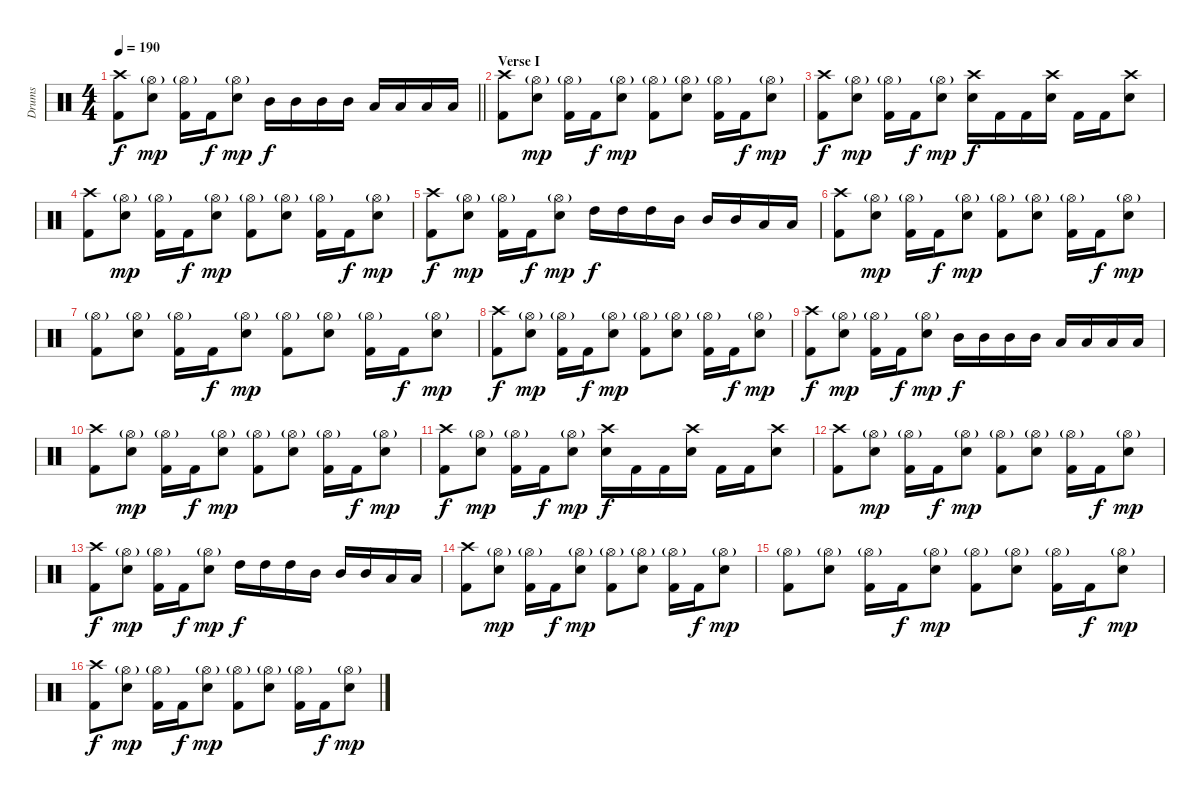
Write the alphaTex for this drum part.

\track ("Drums" "Drums") {instrument percussion}
\staff {score}
\articulation defaults
\ts (4 4)
\tempo 190
\clef neutral
\barLineRight lightlight
\ks c
("Crash high (hit)" "Kick (hit) 2").8{dy f} ("Hi-Hat (open)"{g} "Electric Snare (hit)").8{dy mp} ("Hi-Hat (open)"{g} "Kick (hit) 2").16 "Kick (hit) 2".16{dy f} ("Hi-Hat (open)"{g} "Electric Snare (hit)").8{dy mp} "Mid Tom (hit)".16{dy f} "Mid Tom (hit)".16 "Mid Tom (hit)".16 "Mid Tom (hit)".16 "Low Tom (hit)".16 "Low Tom (hit)".16 "Low Tom (hit)".16 "Low Tom (hit)".16 |
\section ("" "Verse I")
("Crash high (hit)" "Kick (hit) 2").8 ("Hi-Hat (open)"{g} "Electric Snare (hit)").8{dy mp} ("Hi-Hat (open)"{g} "Kick (hit) 2").16 "Kick (hit) 2".16{dy f} ("Hi-Hat (open)"{g} "Electric Snare (hit)").8{dy mp} ("Hi-Hat (open)"{g} "Kick (hit) 2").8 ("Hi-Hat (open)"{g} "Electric Snare (hit)").8 ("Hi-Hat (open)"{g} "Kick (hit) 2").16 "Kick (hit) 2".16{dy f} ("Hi-Hat (open)"{g} "Electric Snare (hit)").8{dy mp} |
("Crash high (hit)" "Kick (hit) 2").8{dy f} ("Hi-Hat (open)"{g} "Electric Snare (hit)").8{dy mp} ("Hi-Hat (open)"{g} "Kick (hit) 2").16 "Kick (hit) 2".16{dy f} ("Hi-Hat (open)"{g} "Electric Snare (hit)").8{dy mp} ("Crash high (hit)" "Electric Snare (hit)").16{dy f} "Kick (hit) 2".16 "Kick (hit) 2".16 ("Crash high (hit)" "Electric Snare (hit)").16 "Kick (hit) 2".16 "Kick (hit) 2".16 ("Crash high (hit)" "Electric Snare (hit)").8 |
("Crash high (hit)" "Kick (hit) 2").8 ("Hi-Hat (open)"{g} "Electric Snare (hit)").8{dy mp} ("Hi-Hat (open)"{g} "Kick (hit) 2").16 "Kick (hit) 2".16{dy f} ("Hi-Hat (open)"{g} "Electric Snare (hit)").8{dy mp} ("Hi-Hat (open)"{g} "Kick (hit) 2").8 ("Hi-Hat (open)"{g} "Electric Snare (hit)").8 ("Hi-Hat (open)"{g} "Kick (hit) 2").16 "Kick (hit) 2".16{dy f} ("Hi-Hat (open)"{g} "Electric Snare (hit)").8{dy mp} |
("Crash high (hit)" "Kick (hit) 2").8{dy f} ("Hi-Hat (open)"{g} "Electric Snare (hit)").8{dy mp} ("Hi-Hat (open)"{g} "Kick (hit) 2").16 "Kick (hit) 2".16{dy f} ("Hi-Hat (open)"{g} "Electric Snare (hit)").8{dy mp} "High Tom (hit)".16{dy f} "High Tom (hit)".16 "High Tom (hit)".16 "Mid Tom (hit)".16 "Mid Tom (hit)".16 "Mid Tom (hit)".16 "Low Tom (hit)".16 "Low Tom (hit)".16 |
("Crash high (hit)" "Kick (hit) 2").8 ("Hi-Hat (open)"{g} "Electric Snare (hit)").8{dy mp} ("Hi-Hat (open)"{g} "Kick (hit) 2").16 "Kick (hit) 2".16{dy f} ("Hi-Hat (open)"{g} "Electric Snare (hit)").8{dy mp} ("Hi-Hat (open)"{g} "Kick (hit) 2").8 ("Hi-Hat (open)"{g} "Electric Snare (hit)").8 ("Hi-Hat (open)"{g} "Kick (hit) 2").16 "Kick (hit) 2".16{dy f} ("Hi-Hat (open)"{g} "Electric Snare (hit)").8{dy mp} |
("Hi-Hat (open)"{g} "Kick (hit) 2").8 ("Hi-Hat (open)"{g} "Electric Snare (hit)").8 ("Hi-Hat (open)"{g} "Kick (hit) 2").16 "Kick (hit) 2".16{dy f} ("Hi-Hat (open)"{g} "Electric Snare (hit)").8{dy mp} ("Hi-Hat (open)"{g} "Kick (hit) 2").8 ("Hi-Hat (open)"{g} "Electric Snare (hit)").8 ("Hi-Hat (open)"{g} "Kick (hit) 2").16 "Kick (hit) 2".16{dy f} ("Hi-Hat (open)"{g} "Electric Snare (hit)").8{dy mp} |
("Crash high (hit)" "Kick (hit) 2").8{dy f} ("Hi-Hat (open)"{g} "Electric Snare (hit)").8{dy mp} ("Hi-Hat (open)"{g} "Kick (hit) 2").16 "Kick (hit) 2".16{dy f} ("Hi-Hat (open)"{g} "Electric Snare (hit)").8{dy mp} ("Hi-Hat (open)"{g} "Kick (hit) 2").8 ("Hi-Hat (open)"{g} "Electric Snare (hit)").8 ("Hi-Hat (open)"{g} "Kick (hit) 2").16 "Kick (hit) 2".16{dy f} ("Hi-Hat (open)"{g} "Electric Snare (hit)").8{dy mp} |
("Crash high (hit)" "Kick (hit) 2").8{dy f} ("Hi-Hat (open)"{g} "Electric Snare (hit)").8{dy mp} ("Hi-Hat (open)"{g} "Kick (hit) 2").16 "Kick (hit) 2".16{dy f} ("Hi-Hat (open)"{g} "Electric Snare (hit)").8{dy mp} "Mid Tom (hit)".16{dy f} "Mid Tom (hit)".16 "Mid Tom (hit)".16 "Mid Tom (hit)".16 "Low Tom (hit)".16 "Low Tom (hit)".16 "Low Tom (hit)".16 "Low Tom (hit)".16 |
("Crash high (hit)" "Kick (hit) 2").8 ("Hi-Hat (open)"{g} "Electric Snare (hit)").8{dy mp} ("Hi-Hat (open)"{g} "Kick (hit) 2").16 "Kick (hit) 2".16{dy f} ("Hi-Hat (open)"{g} "Electric Snare (hit)").8{dy mp} ("Hi-Hat (open)"{g} "Kick (hit) 2").8 ("Hi-Hat (open)"{g} "Electric Snare (hit)").8 ("Hi-Hat (open)"{g} "Kick (hit) 2").16 "Kick (hit) 2".16{dy f} ("Hi-Hat (open)"{g} "Electric Snare (hit)").8{dy mp} |
("Crash high (hit)" "Kick (hit) 2").8{dy f} ("Hi-Hat (open)"{g} "Electric Snare (hit)").8{dy mp} ("Hi-Hat (open)"{g} "Kick (hit) 2").16 "Kick (hit) 2".16{dy f} ("Hi-Hat (open)"{g} "Electric Snare (hit)").8{dy mp} ("Crash high (hit)" "Electric Snare (hit)").16{dy f} "Kick (hit) 2".16 "Kick (hit) 2".16 ("Crash high (hit)" "Electric Snare (hit)").16 "Kick (hit) 2".16 "Kick (hit) 2".16 ("Crash high (hit)" "Electric Snare (hit)").8 |
("Crash high (hit)" "Kick (hit) 2").8 ("Hi-Hat (open)"{g} "Electric Snare (hit)").8{dy mp} ("Hi-Hat (open)"{g} "Kick (hit) 2").16 "Kick (hit) 2".16{dy f} ("Hi-Hat (open)"{g} "Electric Snare (hit)").8{dy mp} ("Hi-Hat (open)"{g} "Kick (hit) 2").8 ("Hi-Hat (open)"{g} "Electric Snare (hit)").8 ("Hi-Hat (open)"{g} "Kick (hit) 2").16 "Kick (hit) 2".16{dy f} ("Hi-Hat (open)"{g} "Electric Snare (hit)").8{dy mp} |
("Crash high (hit)" "Kick (hit) 2").8{dy f} ("Hi-Hat (open)"{g} "Electric Snare (hit)").8{dy mp} ("Hi-Hat (open)"{g} "Kick (hit) 2").16 "Kick (hit) 2".16{dy f} ("Hi-Hat (open)"{g} "Electric Snare (hit)").8{dy mp} "High Tom (hit)".16{dy f} "High Tom (hit)".16 "High Tom (hit)".16 "Mid Tom (hit)".16 "Mid Tom (hit)".16 "Mid Tom (hit)".16 "Low Tom (hit)".16 "Low Tom (hit)".16 |
("Crash high (hit)" "Kick (hit) 2").8 ("Hi-Hat (open)"{g} "Electric Snare (hit)").8{dy mp} ("Hi-Hat (open)"{g} "Kick (hit) 2").16 "Kick (hit) 2".16{dy f} ("Hi-Hat (open)"{g} "Electric Snare (hit)").8{dy mp} ("Hi-Hat (open)"{g} "Kick (hit) 2").8 ("Hi-Hat (open)"{g} "Electric Snare (hit)").8 ("Hi-Hat (open)"{g} "Kick (hit) 2").16 "Kick (hit) 2".16{dy f} ("Hi-Hat (open)"{g} "Electric Snare (hit)").8{dy mp} |
("Hi-Hat (open)"{g} "Kick (hit) 2").8 ("Hi-Hat (open)"{g} "Electric Snare (hit)").8 ("Hi-Hat (open)"{g} "Kick (hit) 2").16 "Kick (hit) 2".16{dy f} ("Hi-Hat (open)"{g} "Electric Snare (hit)").8{dy mp} ("Hi-Hat (open)"{g} "Kick (hit) 2").8 ("Hi-Hat (open)"{g} "Electric Snare (hit)").8 ("Hi-Hat (open)"{g} "Kick (hit) 2").16 "Kick (hit) 2".16{dy f} ("Hi-Hat (open)"{g} "Electric Snare (hit)").8{dy mp} |
("Crash high (hit)" "Kick (hit) 2").8{dy f} ("Hi-Hat (open)"{g} "Electric Snare (hit)").8{dy mp} ("Hi-Hat (open)"{g} "Kick (hit) 2").16 "Kick (hit) 2".16{dy f} ("Hi-Hat (open)"{g} "Electric Snare (hit)").8{dy mp} ("Hi-Hat (open)"{g} "Kick (hit) 2").8 ("Hi-Hat (open)"{g} "Electric Snare (hit)").8 ("Hi-Hat (open)"{g} "Kick (hit) 2").16 "Kick (hit) 2".16{dy f} ("Hi-Hat (open)"{g} "Electric Snare (hit)").8{dy mp}
